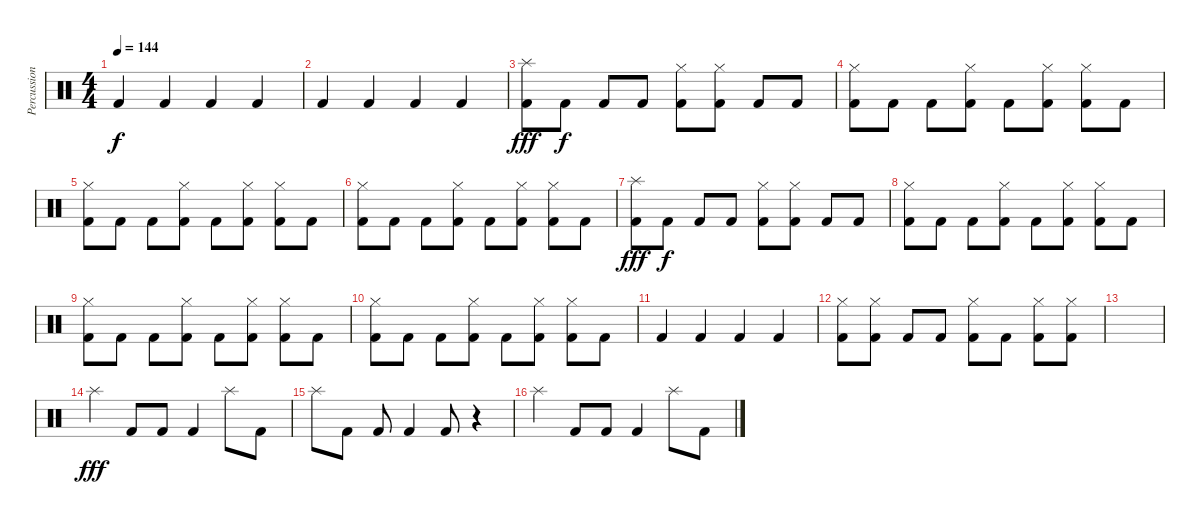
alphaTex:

\track ("Percussion" "Percussion") {instrument percussion}
\staff {score}
\articulation defaults
\ts (4 4)
\tempo 144
\clef neutral
\ks c "Kick (hit) 2".4{dy f} "Kick (hit) 2".4 "Kick (hit) 2".4 "Kick (hit) 2".4
|
"Kick (hit) 2".4 "Kick (hit) 2".4 "Kick (hit) 2".4 "Kick (hit) 2".4 |
("Splash (hit)" "Kick (hit) 2").8{dy fff} "Kick (hit) 2".8{dy f} "Kick (hit) 2".8 "Kick (hit) 2".8 ("Hi-Hat (closed)" "Kick (hit) 2").8 ("Hi-Hat (closed)" "Kick (hit) 2").8 "Kick (hit) 2".8 "Kick (hit) 2".8 |
("Hi-Hat (closed)" "Kick (hit) 2").8 "Kick (hit) 2".8 "Kick (hit) 2".8 ("Hi-Hat (closed)" "Kick (hit) 2").8 "Kick (hit) 2".8 ("Hi-Hat (closed)" "Kick (hit) 2").8 ("Hi-Hat (closed)" "Kick (hit) 2").8 "Kick (hit) 2".8 |
("Hi-Hat (closed)" "Kick (hit) 2").8 "Kick (hit) 2".8 "Kick (hit) 2".8 ("Hi-Hat (closed)" "Kick (hit) 2").8 "Kick (hit) 2".8 ("Hi-Hat (closed)" "Kick (hit) 2").8 ("Hi-Hat (closed)" "Kick (hit) 2").8 "Kick (hit) 2".8 |
("Hi-Hat (closed)" "Kick (hit) 2").8 "Kick (hit) 2".8 "Kick (hit) 2".8 ("Hi-Hat (closed)" "Kick (hit) 2").8 "Kick (hit) 2".8 ("Hi-Hat (closed)" "Kick (hit) 2").8 ("Hi-Hat (closed)" "Kick (hit) 2").8 "Kick (hit) 2".8 |
("Splash (hit)" "Kick (hit) 2").8{dy fff} "Kick (hit) 2".8{dy f} "Kick (hit) 2".8 "Kick (hit) 2".8 ("Hi-Hat (closed)" "Kick (hit) 2").8 ("Hi-Hat (closed)" "Kick (hit) 2").8 "Kick (hit) 2".8 "Kick (hit) 2".8 |
("Hi-Hat (closed)" "Kick (hit) 2").8 "Kick (hit) 2".8 "Kick (hit) 2".8 ("Hi-Hat (closed)" "Kick (hit) 2").8 "Kick (hit) 2".8 ("Hi-Hat (closed)" "Kick (hit) 2").8 ("Hi-Hat (closed)" "Kick (hit) 2").8 "Kick (hit) 2".8 |
("Hi-Hat (closed)" "Kick (hit) 2").8 "Kick (hit) 2".8 "Kick (hit) 2".8 ("Hi-Hat (closed)" "Kick (hit) 2").8 "Kick (hit) 2".8 ("Hi-Hat (closed)" "Kick (hit) 2").8 ("Hi-Hat (closed)" "Kick (hit) 2").8 "Kick (hit) 2".8 |
("Hi-Hat (closed)" "Kick (hit) 2").8 "Kick (hit) 2".8 "Kick (hit) 2".8 ("Hi-Hat (closed)" "Kick (hit) 2").8 "Kick (hit) 2".8 ("Hi-Hat (closed)" "Kick (hit) 2").8 ("Hi-Hat (closed)" "Kick (hit) 2").8 "Kick (hit) 2".8 |
"Kick (hit) 2".4 "Kick (hit) 2".4 "Kick (hit) 2".4 "Kick (hit) 2".4 |
("Hi-Hat (closed)" "Kick (hit) 2").8 ("Hi-Hat (closed)" "Kick (hit) 2").8 "Kick (hit) 2".8 "Kick (hit) 2".8 ("Hi-Hat (closed)" "Kick (hit) 2").8 "Kick (hit) 2".8 ("Hi-Hat (closed)" "Kick (hit) 2").8 ("Hi-Hat (closed)" "Kick (hit) 2").8 |
|
"Splash (hit)".4{dy fff} "Kick (hit) 2".8 "Kick (hit) 2".8 "Kick (hit) 2".4 "Splash (hit)".8 "Kick (hit) 2".8 |
"Splash (hit)".8 "Kick (hit) 2".8 "Kick (hit) 2".8 "Kick (hit) 2".4 "Kick (hit) 2".8 r.4 |
"Splash (hit)".4 "Kick (hit) 2".8 "Kick (hit) 2".8 "Kick (hit) 2".4 "Splash (hit)".8 "Kick (hit) 2".8
